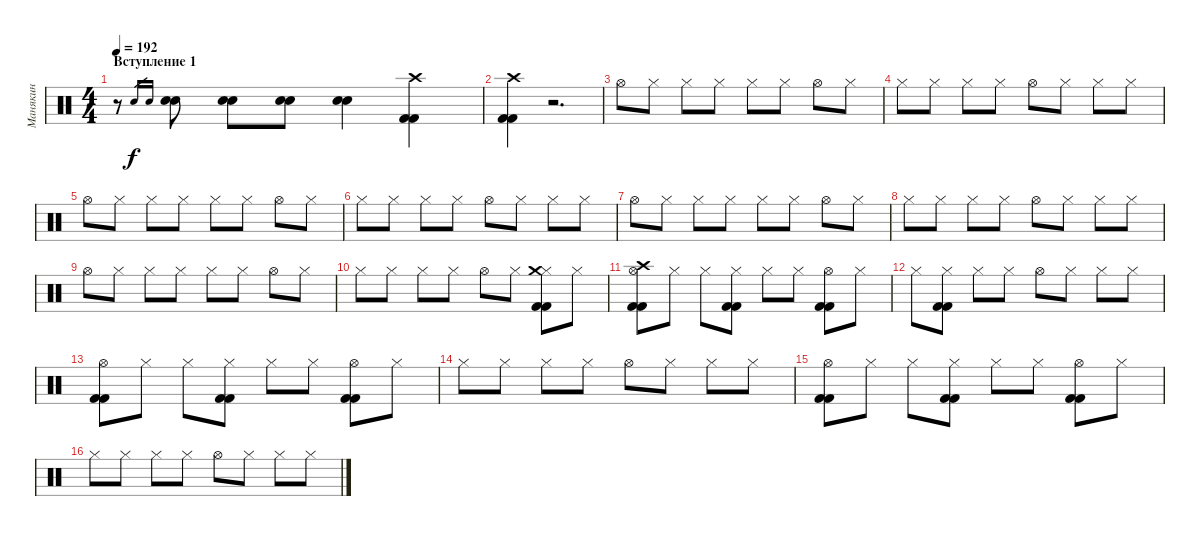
\track ("Манякин" "Манякин") {instrument percussion}
\staff {score}
\articulation defaults
\ts (4 4)
\section ("" "Вступление 1")
\tempo 192
\clef neutral
\ks c
r.8{dy f} "Electric Snare (hit)".16{gr} "Electric Snare (hit)".16{gr} ("Electric Snare (hit)" "Electric Snare (hit)").8 ("Electric Snare (hit)" "Electric Snare (hit)").8 ("Electric Snare (hit)" "Electric Snare (hit)").8 ("Electric Snare (hit)" "Electric Snare (hit)").4 ("Crash high (hit)" "Kick (hit) 2" "Kick (hit) 2").4 |
("Crash high (hit)" "Kick (hit) 2" "Kick (hit) 2").4 r.2{d} |
"Hi-Hat (open)".8 "Hi-Hat (closed)".8 "Hi-Hat (closed)".8 "Hi-Hat (closed)".8 "Hi-Hat (closed)".8 "Hi-Hat (closed)".8 "Hi-Hat (open)".8 "Hi-Hat (closed)".8 |
"Hi-Hat (closed)".8 "Hi-Hat (closed)".8 "Hi-Hat (closed)".8 "Hi-Hat (closed)".8 "Hi-Hat (open)".8 "Hi-Hat (closed)".8 "Hi-Hat (closed)".8 "Hi-Hat (closed)".8 |
"Hi-Hat (open)".8 "Hi-Hat (closed)".8 "Hi-Hat (closed)".8 "Hi-Hat (closed)".8 "Hi-Hat (closed)".8 "Hi-Hat (closed)".8 "Hi-Hat (open)".8 "Hi-Hat (closed)".8 |
"Hi-Hat (closed)".8 "Hi-Hat (closed)".8 "Hi-Hat (closed)".8 "Hi-Hat (closed)".8 "Hi-Hat (open)".8 "Hi-Hat (closed)".8 "Hi-Hat (closed)".8 "Hi-Hat (closed)".8 |
"Hi-Hat (open)".8 "Hi-Hat (closed)".8 "Hi-Hat (closed)".8 "Hi-Hat (closed)".8 "Hi-Hat (closed)".8 "Hi-Hat (closed)".8 "Hi-Hat (open)".8 "Hi-Hat (closed)".8 |
"Hi-Hat (closed)".8 "Hi-Hat (closed)".8 "Hi-Hat (closed)".8 "Hi-Hat (closed)".8 "Hi-Hat (open)".8 "Hi-Hat (closed)".8 "Hi-Hat (closed)".8 "Hi-Hat (closed)".8 |
"Hi-Hat (open)".8 "Hi-Hat (closed)".8 "Hi-Hat (closed)".8 "Hi-Hat (closed)".8 "Hi-Hat (closed)".8 "Hi-Hat (closed)".8 "Hi-Hat (open)".8 "Hi-Hat (closed)".8 |
"Hi-Hat (closed)".8 "Hi-Hat (closed)".8 "Hi-Hat (closed)".8 "Hi-Hat (closed)".8 "Hi-Hat (open)".8 "Hi-Hat (closed)".8 ("Hi-Hat (closed)" "Crash medium (hit)" "Kick (hit) 2" "Kick (hit) 2").8 "Hi-Hat (closed)".8 |
("Hi-Hat (open)" "Crash high (hit)" "Kick (hit) 2" "Kick (hit) 2").8 "Hi-Hat (closed)".8 "Hi-Hat (closed)".8 ("Hi-Hat (closed)" "Kick (hit) 2" "Kick (hit) 2").8 "Hi-Hat (closed)".8 "Hi-Hat (closed)".8 ("Hi-Hat (open)" "Kick (hit) 2" "Kick (hit) 2").8 "Hi-Hat (closed)".8 |
"Hi-Hat (closed)".8 ("Hi-Hat (closed)" "Kick (hit) 2" "Kick (hit) 2").8 "Hi-Hat (closed)".8 "Hi-Hat (closed)".8 "Hi-Hat (open)".8 "Hi-Hat (closed)".8 "Hi-Hat (closed)".8 "Hi-Hat (closed)".8 |
("Hi-Hat (open)" "Kick (hit) 2" "Kick (hit) 2").8 "Hi-Hat (closed)".8 "Hi-Hat (closed)".8 ("Hi-Hat (closed)" "Kick (hit) 2" "Kick (hit) 2").8 "Hi-Hat (closed)".8 "Hi-Hat (closed)".8 ("Hi-Hat (open)" "Kick (hit) 2" "Kick (hit) 2").8 "Hi-Hat (closed)".8 |
"Hi-Hat (closed)".8 "Hi-Hat (closed)".8 "Hi-Hat (closed)".8 "Hi-Hat (closed)".8 "Hi-Hat (open)".8 "Hi-Hat (closed)".8 "Hi-Hat (closed)".8 "Hi-Hat (closed)".8 |
("Hi-Hat (open)" "Kick (hit) 2" "Kick (hit) 2").8 "Hi-Hat (closed)".8 "Hi-Hat (closed)".8 ("Hi-Hat (closed)" "Kick (hit) 2" "Kick (hit) 2").8 "Hi-Hat (closed)".8 "Hi-Hat (closed)".8 ("Hi-Hat (open)" "Kick (hit) 2" "Kick (hit) 2").8 "Hi-Hat (closed)".8 |
"Hi-Hat (closed)".8 "Hi-Hat (closed)".8 "Hi-Hat (closed)".8 "Hi-Hat (closed)".8 "Hi-Hat (open)".8 "Hi-Hat (closed)".8 "Hi-Hat (closed)".8 "Hi-Hat (closed)".8
